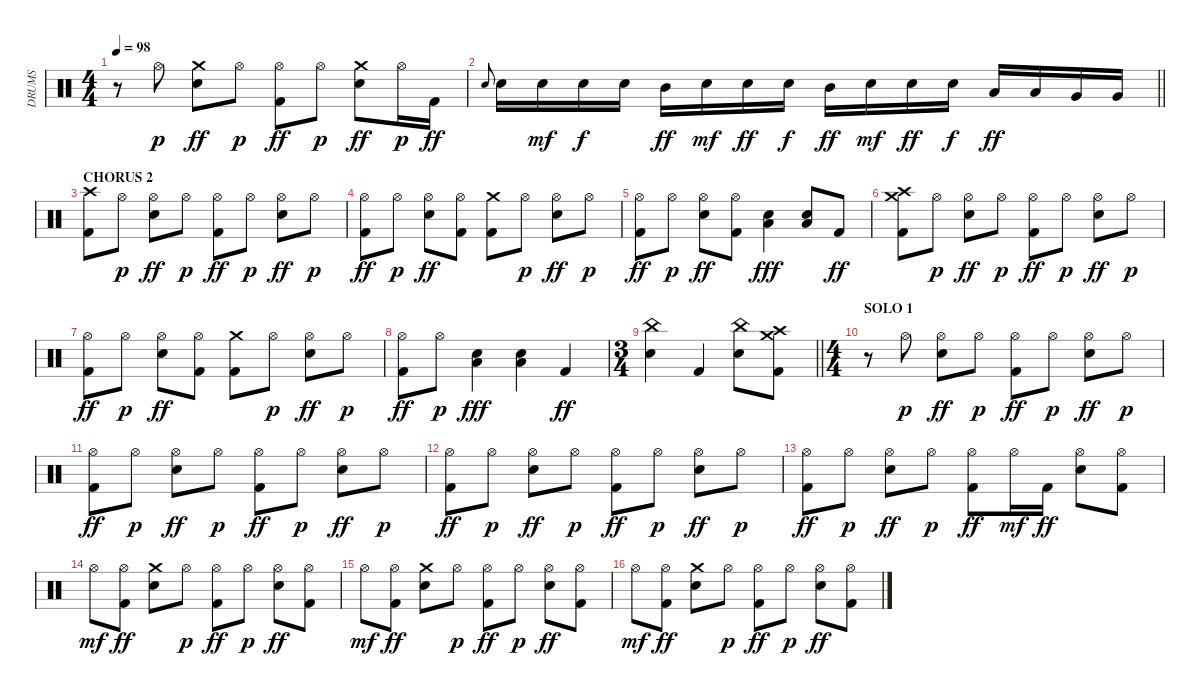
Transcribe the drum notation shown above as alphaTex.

\track ("DRUMS" "DRUMS") {instrument percussion}
\staff {score}
\articulation defaults
\ts (4 4)
\tempo 98
\clef neutral
\ks c
r.8{dy ff} "Hi-Hat (open)".8{dy p} ("Crash medium (hit)" "Snare (hit) 2").8{dy ff} "Hi-Hat (open)".8{dy p} ("Hi-Hat (open)" "Kick (hit) 2").8{dy ff} "Hi-Hat (open)".8{dy p} ("Crash medium (hit)" "Snare (hit) 2").8{dy ff} "Hi-Hat (open)".16{dy p} "Kick (hit) 2".16{dy ff} |
\barLineRight lightlight "Snare (hit) 2".8{gr onbeat} "Snare (hit) 2".16 "Snare (hit) 2".16{dy mf} "Snare (hit) 2".16{dy f} "Snare (hit) 2".16 "Mid Tom (hit)".16{dy ff} "Snare (hit) 2".16{dy mf} "Snare (hit) 2".16{dy ff} "Snare (hit) 2".16{dy f} "Mid Tom (hit)".16{dy ff} "Snare (hit) 2".16{dy mf} "Snare (hit) 2".16{dy ff} "Snare (hit) 2".16{dy f} "Low Tom (hit)".16{dy ff} "Low Tom (hit)".16 "Very Low Tom (hit)".16 "Very Low Tom (hit)".16
|
\section ("" "CHORUS 2")
("Crash high (hit)" "Kick (hit) 2").8 "Hi-Hat (open)".8{dy p} ("Hi-Hat (open)" "Snare (hit) 2").8{dy ff} "Hi-Hat (open)".8{dy p} ("Hi-Hat (open)" "Kick (hit) 2").8{dy ff} "Hi-Hat (open)".8{dy p} ("Hi-Hat (open)" "Snare (hit) 2").8{dy ff} "Hi-Hat (open)".8{dy p} |
("Hi-Hat (open)" "Kick (hit) 2").8{dy ff} "Hi-Hat (open)".8{dy p} ("Hi-Hat (open)" "Snare (hit) 2").8{dy ff} ("Hi-Hat (open)" "Kick (hit) 2").8 ("Crash medium (hit)" "Kick (hit) 2").8 "Hi-Hat (open)".8{dy p} ("Hi-Hat (open)" "Snare (hit) 2").8{dy ff} "Hi-Hat (open)".8{dy p} |
("Hi-Hat (open)" "Kick (hit) 2").8{dy ff} "Hi-Hat (open)".8{dy p} ("Hi-Hat (open)" "Snare (hit) 2").8{dy ff} ("Hi-Hat (open)" "Kick (hit) 2").8 ("Snare (hit) 2" "Low Floor Tom (hit)").4{dy fff} ("Snare (hit) 2" "Low Floor Tom (hit)").8 "Kick (hit) 2".8{dy ff} |
("Crash high (hit)" "Crash medium (hit)" "Kick (hit) 2").8 "Hi-Hat (open)".8{dy p} ("Hi-Hat (open)" "Snare (hit) 2").8{dy ff} "Hi-Hat (open)".8{dy p} ("Hi-Hat (open)" "Kick (hit) 2").8{dy ff} "Hi-Hat (open)".8{dy p} ("Hi-Hat (open)" "Snare (hit) 2").8{dy ff} "Hi-Hat (open)".8{dy p} |
("Hi-Hat (open)" "Kick (hit) 2").8{dy ff} "Hi-Hat (open)".8{dy p} ("Hi-Hat (open)" "Snare (hit) 2").8{dy ff} ("Hi-Hat (open)" "Kick (hit) 2").8 ("Crash medium (hit)" "Kick (hit) 2").8 "Hi-Hat (open)".8{dy p} ("Hi-Hat (open)" "Snare (hit) 2").8{dy ff} "Hi-Hat (open)".8{dy p} |
("Hi-Hat (open)" "Kick (hit) 2").8{dy ff} "Hi-Hat (open)".8{dy p} ("Snare (hit) 2" "Low Floor Tom (hit)").4{dy fff} ("Snare (hit) 2" "Low Floor Tom (hit)").4 "Kick (hit) 2".4{dy ff} |
\ts (3 4)
\barLineRight lightlight
("China (hit)" "Snare (hit) 2").4 "Kick (hit) 2".4 ("China (hit)" "Snare (hit) 2").8 ("Crash high (hit)" "Crash medium (hit)" "Kick (hit) 2").8 |
\ts (4 4)
\section ("" "SOLO 1")
r.8 "Hi-Hat (open)".8{dy p} ("Hi-Hat (open)" "Snare (hit) 2").8{dy ff} "Hi-Hat (open)".8{dy p} ("Hi-Hat (open)" "Kick (hit) 2").8{dy ff} "Hi-Hat (open)".8{dy p} ("Hi-Hat (open)" "Snare (hit) 2").8{dy ff} "Hi-Hat (open)".8{dy p} |
("Hi-Hat (open)" "Kick (hit) 2").8{dy ff} "Hi-Hat (open)".8{dy p} ("Hi-Hat (open)" "Snare (hit) 2").8{dy ff} "Hi-Hat (open)".8{dy p} ("Hi-Hat (open)" "Kick (hit) 2").8{dy ff} "Hi-Hat (open)".8{dy p} ("Hi-Hat (open)" "Snare (hit) 2").8{dy ff} "Hi-Hat (open)".8{dy p} |
("Hi-Hat (open)" "Kick (hit) 2").8{dy ff} "Hi-Hat (open)".8{dy p} ("Hi-Hat (open)" "Snare (hit) 2").8{dy ff} "Hi-Hat (open)".8{dy p} ("Hi-Hat (open)" "Kick (hit) 2").8{dy ff} "Hi-Hat (open)".8{dy p} ("Hi-Hat (open)" "Snare (hit) 2").8{dy ff} "Hi-Hat (open)".8{dy p} |
("Hi-Hat (open)" "Kick (hit) 2").8{dy ff} "Hi-Hat (open)".8{dy p} ("Hi-Hat (open)" "Snare (hit) 2").8{dy ff} "Hi-Hat (open)".8{dy p} ("Hi-Hat (open)" "Kick (hit) 2").8{dy ff} "Hi-Hat (open)".16{dy mf} "Kick (hit) 2".16{dy ff} ("Hi-Hat (open)" "Snare (hit) 2").8 ("Hi-Hat (open)" "Kick (hit) 2").8 |
"Hi-Hat (open)".8{dy mf} ("Hi-Hat (open)" "Kick (hit) 2").8{dy ff} ("Crash medium (hit)" "Snare (hit) 2").8 "Hi-Hat (open)".8{dy p} ("Hi-Hat (open)" "Kick (hit) 2").8{dy ff} "Hi-Hat (open)".8{dy p} ("Hi-Hat (open)" "Snare (hit) 2").8{dy ff} ("Hi-Hat (open)" "Kick (hit) 2").8 |
"Hi-Hat (open)".8{dy mf} ("Hi-Hat (open)" "Kick (hit) 2").8{dy ff} ("Crash medium (hit)" "Snare (hit) 2").8 "Hi-Hat (open)".8{dy p} ("Hi-Hat (open)" "Kick (hit) 2").8{dy ff} "Hi-Hat (open)".8{dy p} ("Hi-Hat (open)" "Snare (hit) 2").8{dy ff} ("Hi-Hat (open)" "Kick (hit) 2").8 |
"Hi-Hat (open)".8{dy mf} ("Hi-Hat (open)" "Kick (hit) 2").8{dy ff} ("Crash medium (hit)" "Snare (hit) 2").8 "Hi-Hat (open)".8{dy p} ("Hi-Hat (open)" "Kick (hit) 2").8{dy ff} "Hi-Hat (open)".8{dy p} ("Hi-Hat (open)" "Snare (hit) 2").8{dy ff} ("Hi-Hat (open)" "Kick (hit) 2").8
